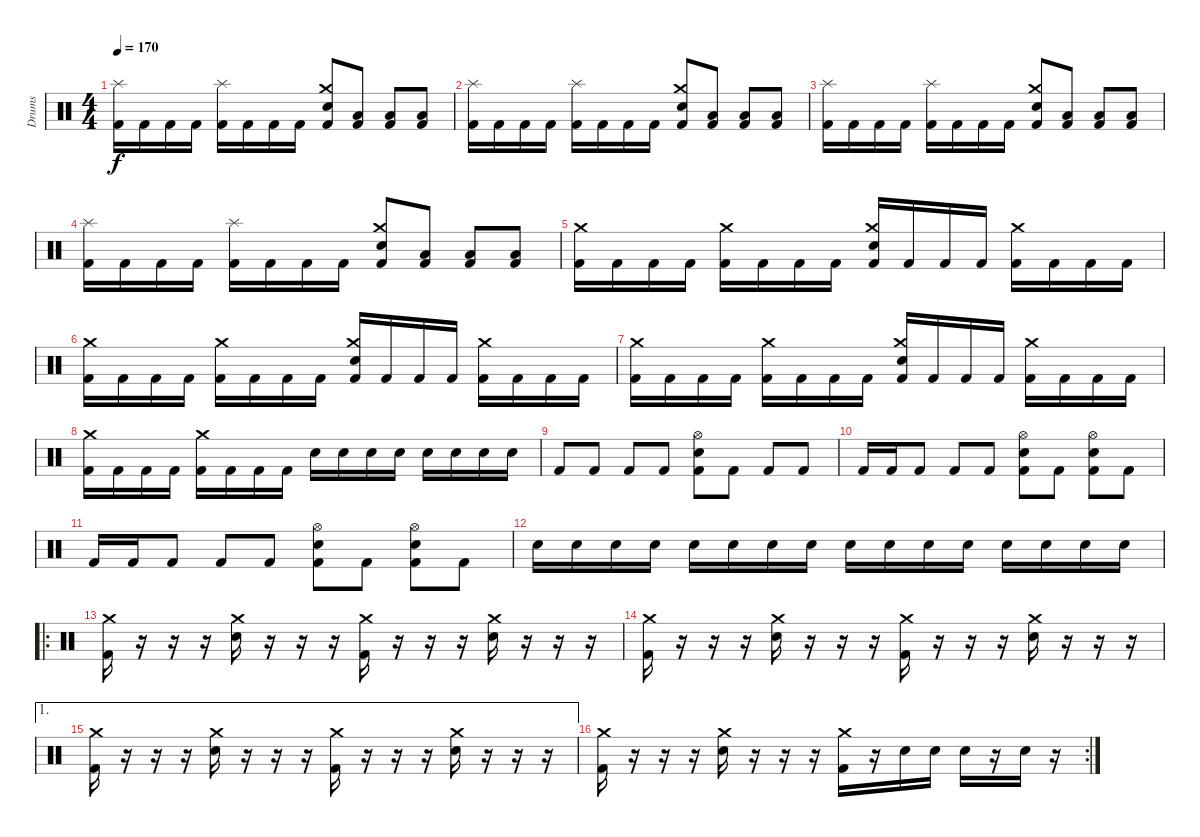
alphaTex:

\track ("Drums" "Drums") {instrument percussion}
\staff {score}
\articulation defaults
\ts (4 4)
\tempo 170
\clef neutral
\ks c
("Splash (hit)" "Kick (hit) 2").16{dy f} "Kick (hit) 2".16 "Kick (hit) 2".16 "Kick (hit) 2".16 ("Splash (hit)" "Kick (hit) 2").16 "Kick (hit) 2".16 "Kick (hit) 2".16 "Kick (hit) 2".16 ("Crash medium (hit)" "Electric Snare (hit)" "Kick (hit) 2").8 ("Low Tom (hit)" "Kick (hit) 2").8 ("Low Tom (hit)" "Kick (hit) 2").8 ("Low Tom (hit)" "Kick (hit) 2").8 |
("Splash (hit)" "Kick (hit) 2").16 "Kick (hit) 2".16 "Kick (hit) 2".16 "Kick (hit) 2".16 ("Splash (hit)" "Kick (hit) 2").16 "Kick (hit) 2".16 "Kick (hit) 2".16 "Kick (hit) 2".16 ("Crash medium (hit)" "Electric Snare (hit)" "Kick (hit) 2").8 ("Low Tom (hit)" "Kick (hit) 2").8 ("Low Tom (hit)" "Kick (hit) 2").8 ("Low Tom (hit)" "Kick (hit) 2").8 |
("Splash (hit)" "Kick (hit) 2").16 "Kick (hit) 2".16 "Kick (hit) 2".16 "Kick (hit) 2".16 ("Splash (hit)" "Kick (hit) 2").16 "Kick (hit) 2".16 "Kick (hit) 2".16 "Kick (hit) 2".16 ("Crash medium (hit)" "Electric Snare (hit)" "Kick (hit) 2").8 ("Low Tom (hit)" "Kick (hit) 2").8 ("Low Tom (hit)" "Kick (hit) 2").8 ("Low Tom (hit)" "Kick (hit) 2").8 |
("Splash (hit)" "Kick (hit) 2").16 "Kick (hit) 2".16 "Kick (hit) 2".16 "Kick (hit) 2".16 ("Splash (hit)" "Kick (hit) 2").16 "Kick (hit) 2".16 "Kick (hit) 2".16 "Kick (hit) 2".16 ("Crash medium (hit)" "Electric Snare (hit)" "Kick (hit) 2").8 ("Low Tom (hit)" "Kick (hit) 2").8 ("Low Tom (hit)" "Kick (hit) 2").8 ("Low Tom (hit)" "Kick (hit) 2").8 |
("Crash medium (hit)" "Kick (hit) 2").16 "Kick (hit) 2".16 "Kick (hit) 2".16 "Kick (hit) 2".16 ("Crash medium (hit)" "Kick (hit) 2").16 "Kick (hit) 2".16 "Kick (hit) 2".16 "Kick (hit) 2".16 ("Crash medium (hit)" "Electric Snare (hit)" "Kick (hit) 2").16 "Kick (hit) 2".16 "Kick (hit) 2".16 "Kick (hit) 2".16 ("Crash medium (hit)" "Kick (hit) 2").16 "Kick (hit) 2".16 "Kick (hit) 2".16 "Kick (hit) 2".16 |
("Crash medium (hit)" "Kick (hit) 2").16 "Kick (hit) 2".16 "Kick (hit) 2".16 "Kick (hit) 2".16 ("Crash medium (hit)" "Kick (hit) 2").16 "Kick (hit) 2".16 "Kick (hit) 2".16 "Kick (hit) 2".16 ("Crash medium (hit)" "Electric Snare (hit)" "Kick (hit) 2").16 "Kick (hit) 2".16 "Kick (hit) 2".16 "Kick (hit) 2".16 ("Crash medium (hit)" "Kick (hit) 2").16 "Kick (hit) 2".16 "Kick (hit) 2".16 "Kick (hit) 2".16 |
("Crash medium (hit)" "Kick (hit) 2").16 "Kick (hit) 2".16 "Kick (hit) 2".16 "Kick (hit) 2".16 ("Crash medium (hit)" "Kick (hit) 2").16 "Kick (hit) 2".16 "Kick (hit) 2".16 "Kick (hit) 2".16 ("Crash medium (hit)" "Electric Snare (hit)" "Kick (hit) 2").16 "Kick (hit) 2".16 "Kick (hit) 2".16 "Kick (hit) 2".16 ("Crash medium (hit)" "Kick (hit) 2").16 "Kick (hit) 2".16 "Kick (hit) 2".16 "Kick (hit) 2".16 |
("Crash medium (hit)" "Kick (hit) 2").16 "Kick (hit) 2".16 "Kick (hit) 2".16 "Kick (hit) 2".16 ("Crash medium (hit)" "Kick (hit) 2").16 "Kick (hit) 2".16 "Kick (hit) 2".16 "Kick (hit) 2".16 "Electric Snare (hit)".16 "Electric Snare (hit)".16 "Electric Snare (hit)".16 "Electric Snare (hit)".16 "Electric Snare (hit)".16 "Electric Snare (hit)".16 "Electric Snare (hit)".16 "Electric Snare (hit)".16 |
"Kick (hit) 2".8 "Kick (hit) 2".8 "Kick (hit) 2".8 "Kick (hit) 2".8 ("Hi-Hat (open)" "Electric Snare (hit)" "Kick (hit) 2").8 "Kick (hit) 2".8 "Kick (hit) 2".8 "Kick (hit) 2".8 |
"Kick (hit) 2".16 "Kick (hit) 2".16 "Kick (hit) 2".8 "Kick (hit) 2".8 "Kick (hit) 2".8 ("Hi-Hat (open)" "Electric Snare (hit)" "Kick (hit) 2").8 "Kick (hit) 2".8 ("Hi-Hat (open)" "Electric Snare (hit)" "Kick (hit) 2").8 "Kick (hit) 2".8 |
"Kick (hit) 2".16 "Kick (hit) 2".16 "Kick (hit) 2".8 "Kick (hit) 2".8 "Kick (hit) 2".8 ("Hi-Hat (open)" "Electric Snare (hit)" "Kick (hit) 2").8 "Kick (hit) 2".8 ("Hi-Hat (open)" "Electric Snare (hit)" "Kick (hit) 2").8 "Kick (hit) 2".8 |
"Electric Snare (hit)".16 "Electric Snare (hit)".16 "Electric Snare (hit)".16 "Electric Snare (hit)".16 "Electric Snare (hit)".16 "Electric Snare (hit)".16 "Electric Snare (hit)".16 "Electric Snare (hit)".16 "Electric Snare (hit)".16 "Electric Snare (hit)".16 "Electric Snare (hit)".16 "Electric Snare (hit)".16 "Electric Snare (hit)".16 "Electric Snare (hit)".16 "Electric Snare (hit)".16 "Electric Snare (hit)".16 |
\ro
("Crash medium (hit)" "Kick (hit) 2").16 r.16 r.16 r.16 ("Crash medium (hit)" "Electric Snare (hit)").16 r.16 r.16 r.16 ("Crash medium (hit)" "Kick (hit) 2").16 r.16 r.16 r.16 ("Crash medium (hit)" "Electric Snare (hit)").16 r.16 r.16 r.16 |
("Crash medium (hit)" "Kick (hit) 2").16 r.16 r.16 r.16 ("Crash medium (hit)" "Electric Snare (hit)").16 r.16 r.16 r.16 ("Crash medium (hit)" "Kick (hit) 2").16 r.16 r.16 r.16 ("Crash medium (hit)" "Electric Snare (hit)").16 r.16 r.16 r.16 |
\ae 1
("Crash medium (hit)" "Kick (hit) 2").16 r.16 r.16 r.16 ("Crash medium (hit)" "Electric Snare (hit)").16 r.16 r.16 r.16 ("Crash medium (hit)" "Kick (hit) 2").16 r.16 r.16 r.16 ("Crash medium (hit)" "Electric Snare (hit)").16 r.16 r.16 r.16 |
\rc 2
("Crash medium (hit)" "Kick (hit) 2").16 r.16 r.16 r.16 ("Crash medium (hit)" "Electric Snare (hit)").16 r.16 r.16 r.16 ("Crash medium (hit)" "Kick (hit) 2").16 r.16 "Electric Snare (hit)".16 "Electric Snare (hit)".16 "Electric Snare (hit)".16 r.16 "Electric Snare (hit)".16 r.16
